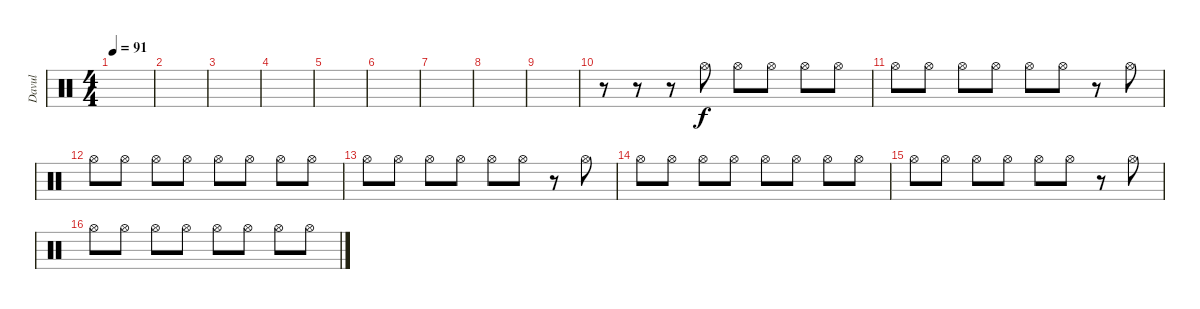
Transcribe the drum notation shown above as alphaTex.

\track ("Davul" "Davul") {instrument percussion}
\staff {score}
\articulation defaults
\ts (4 4)
\tempo 91
\clef neutral
\ks c
|
|
|
|
|
|
|
|
|
r.8 r.8 r.8 "Hi-Hat (open)".8 "Hi-Hat (open)".8 "Hi-Hat (open)".8 "Hi-Hat (open)".8 "Hi-Hat (open)".8 |
"Hi-Hat (open)".8 "Hi-Hat (open)".8 "Hi-Hat (open)".8 "Hi-Hat (open)".8 "Hi-Hat (open)".8 "Hi-Hat (open)".8 r.8 "Hi-Hat (open)".8 |
"Hi-Hat (open)".8 "Hi-Hat (open)".8 "Hi-Hat (open)".8 "Hi-Hat (open)".8 "Hi-Hat (open)".8 "Hi-Hat (open)".8 "Hi-Hat (open)".8 "Hi-Hat (open)".8 |
"Hi-Hat (open)".8 "Hi-Hat (open)".8 "Hi-Hat (open)".8 "Hi-Hat (open)".8 "Hi-Hat (open)".8 "Hi-Hat (open)".8 r.8 "Hi-Hat (open)".8 |
"Hi-Hat (open)".8 "Hi-Hat (open)".8 "Hi-Hat (open)".8 "Hi-Hat (open)".8 "Hi-Hat (open)".8 "Hi-Hat (open)".8 "Hi-Hat (open)".8 "Hi-Hat (open)".8 |
"Hi-Hat (open)".8 "Hi-Hat (open)".8 "Hi-Hat (open)".8 "Hi-Hat (open)".8 "Hi-Hat (open)".8 "Hi-Hat (open)".8 r.8 "Hi-Hat (open)".8 |
"Hi-Hat (open)".8 "Hi-Hat (open)".8 "Hi-Hat (open)".8 "Hi-Hat (open)".8 "Hi-Hat (open)".8 "Hi-Hat (open)".8 "Hi-Hat (open)".8 "Hi-Hat (open)".8
